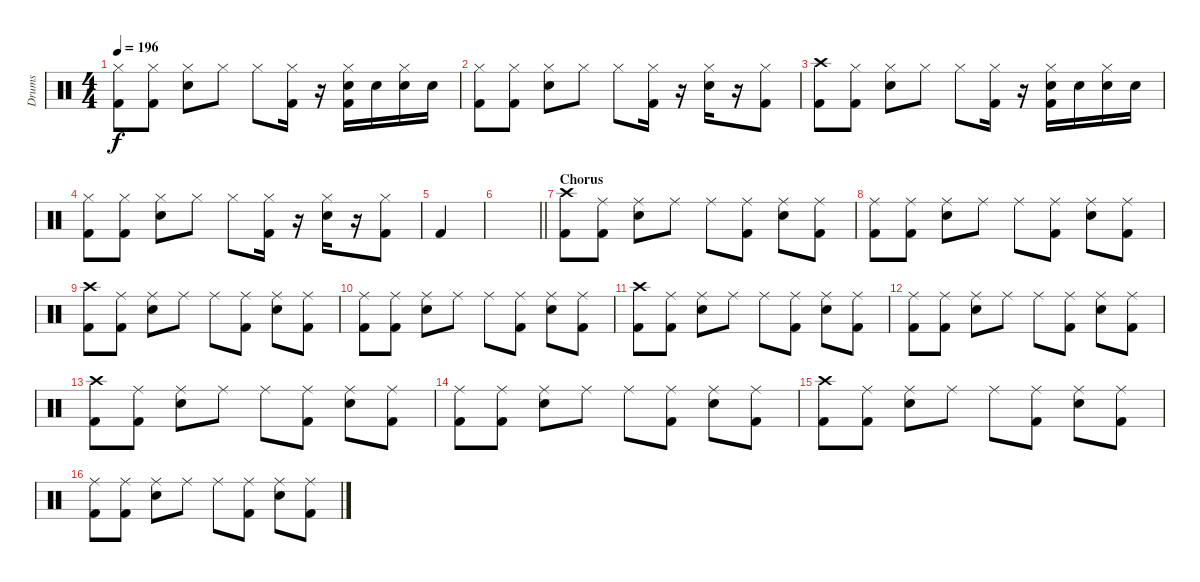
\track ("Drums" "Drums") {instrument percussion}
\staff {score}
\articulation defaults
\ts (4 4)
\tempo 196
\clef neutral
\ks c
("Hi-Hat (closed)" "Kick (hit) 2").8{dy f} ("Hi-Hat (closed)" "Kick (hit) 2").8 ("Hi-Hat (closed)" "Electric Snare (hit)").8 "Hi-Hat (closed)".8 "Hi-Hat (closed)".8 ("Hi-Hat (closed)" "Kick (hit) 2").16 r.16 ("Hi-Hat (closed)" "Electric Snare (hit)" "Kick (hit) 2").16 "Electric Snare (hit)".16 ("Hi-Hat (closed)" "Electric Snare (hit)").16 "Electric Snare (hit)".16 |
("Hi-Hat (closed)" "Kick (hit) 2").8 ("Hi-Hat (closed)" "Kick (hit) 2").8 ("Hi-Hat (closed)" "Electric Snare (hit)").8 "Hi-Hat (closed)".8 "Hi-Hat (closed)".8 ("Hi-Hat (closed)" "Kick (hit) 2").16 r.16 ("Hi-Hat (closed)" "Electric Snare (hit)").16 r.16 ("Hi-Hat (closed)" "Kick (hit) 2").8 |
("Crash high (hit)" "Kick (hit) 2").8 ("Hi-Hat (closed)" "Kick (hit) 2").8 ("Hi-Hat (closed)" "Electric Snare (hit)").8 "Hi-Hat (closed)".8 "Hi-Hat (closed)".8 ("Hi-Hat (closed)" "Kick (hit) 2").16 r.16 ("Hi-Hat (closed)" "Electric Snare (hit)" "Kick (hit) 2").16 "Electric Snare (hit)".16 ("Hi-Hat (closed)" "Electric Snare (hit)").16 "Electric Snare (hit)".16 |
("Hi-Hat (closed)" "Kick (hit) 2").8 ("Hi-Hat (closed)" "Kick (hit) 2").8 ("Hi-Hat (closed)" "Electric Snare (hit)").8 "Hi-Hat (closed)".8 "Hi-Hat (closed)".8 ("Hi-Hat (closed)" "Kick (hit) 2").16 r.16 ("Hi-Hat (closed)" "Electric Snare (hit)").16 r.16 ("Hi-Hat (closed)" "Kick (hit) 2").8 |
"Kick (hit) 2".4 |
\barLineRight lightlight
|
\section ("" "Chorus")
("Crash high (hit)" "Kick (hit) 2").8 ("Ride (middle)" "Kick (hit) 2").8 ("Ride (middle)" "Electric Snare (hit)").8 "Ride (middle)".8 "Ride (middle)".8 ("Ride (middle)" "Kick (hit) 2").8 ("Ride (middle)" "Electric Snare (hit)").8 ("Ride (middle)" "Kick (hit) 2").8 |
("Ride (middle)" "Kick (hit) 2").8 ("Ride (middle)" "Kick (hit) 2").8 ("Ride (middle)" "Electric Snare (hit)").8 "Ride (middle)".8 "Ride (middle)".8 ("Ride (middle)" "Kick (hit) 2").8 ("Ride (middle)" "Electric Snare (hit)").8 ("Ride (middle)" "Kick (hit) 2").8 |
("Crash high (hit)" "Kick (hit) 2").8 ("Ride (middle)" "Kick (hit) 2").8 ("Ride (middle)" "Electric Snare (hit)").8 "Ride (middle)".8 "Ride (middle)".8 ("Ride (middle)" "Kick (hit) 2").8 ("Ride (middle)" "Electric Snare (hit)").8 ("Ride (middle)" "Kick (hit) 2").8 |
("Ride (middle)" "Kick (hit) 2").8 ("Ride (middle)" "Kick (hit) 2").8 ("Ride (middle)" "Electric Snare (hit)").8 "Ride (middle)".8 "Ride (middle)".8 ("Ride (middle)" "Kick (hit) 2").8 ("Ride (middle)" "Electric Snare (hit)").8 ("Ride (middle)" "Kick (hit) 2").8 |
("Crash high (hit)" "Kick (hit) 2").8 ("Ride (middle)" "Kick (hit) 2").8 ("Ride (middle)" "Electric Snare (hit)").8 "Ride (middle)".8 "Ride (middle)".8 ("Ride (middle)" "Kick (hit) 2").8 ("Ride (middle)" "Electric Snare (hit)").8 ("Ride (middle)" "Kick (hit) 2").8 |
("Ride (middle)" "Kick (hit) 2").8 ("Ride (middle)" "Kick (hit) 2").8 ("Ride (middle)" "Electric Snare (hit)").8 "Ride (middle)".8 "Ride (middle)".8 ("Ride (middle)" "Kick (hit) 2").8 ("Ride (middle)" "Electric Snare (hit)").8 ("Ride (middle)" "Kick (hit) 2").8 |
("Crash high (hit)" "Kick (hit) 2").8 ("Ride (middle)" "Kick (hit) 2").8 ("Ride (middle)" "Electric Snare (hit)").8 "Ride (middle)".8 "Ride (middle)".8 ("Ride (middle)" "Kick (hit) 2").8 ("Ride (middle)" "Electric Snare (hit)").8 ("Ride (middle)" "Kick (hit) 2").8 |
("Ride (middle)" "Kick (hit) 2").8 ("Ride (middle)" "Kick (hit) 2").8 ("Ride (middle)" "Electric Snare (hit)").8 "Ride (middle)".8 "Ride (middle)".8 ("Ride (middle)" "Kick (hit) 2").8 ("Ride (middle)" "Electric Snare (hit)").8 ("Ride (middle)" "Kick (hit) 2").8 |
("Crash high (hit)" "Kick (hit) 2").8 ("Ride (middle)" "Kick (hit) 2").8 ("Ride (middle)" "Electric Snare (hit)").8 "Ride (middle)".8 "Ride (middle)".8 ("Ride (middle)" "Kick (hit) 2").8 ("Ride (middle)" "Electric Snare (hit)").8 ("Ride (middle)" "Kick (hit) 2").8 |
("Ride (middle)" "Kick (hit) 2").8 ("Ride (middle)" "Kick (hit) 2").8 ("Ride (middle)" "Electric Snare (hit)").8 "Ride (middle)".8 "Ride (middle)".8 ("Ride (middle)" "Kick (hit) 2").8 ("Ride (middle)" "Electric Snare (hit)").8 ("Ride (middle)" "Kick (hit) 2").8
